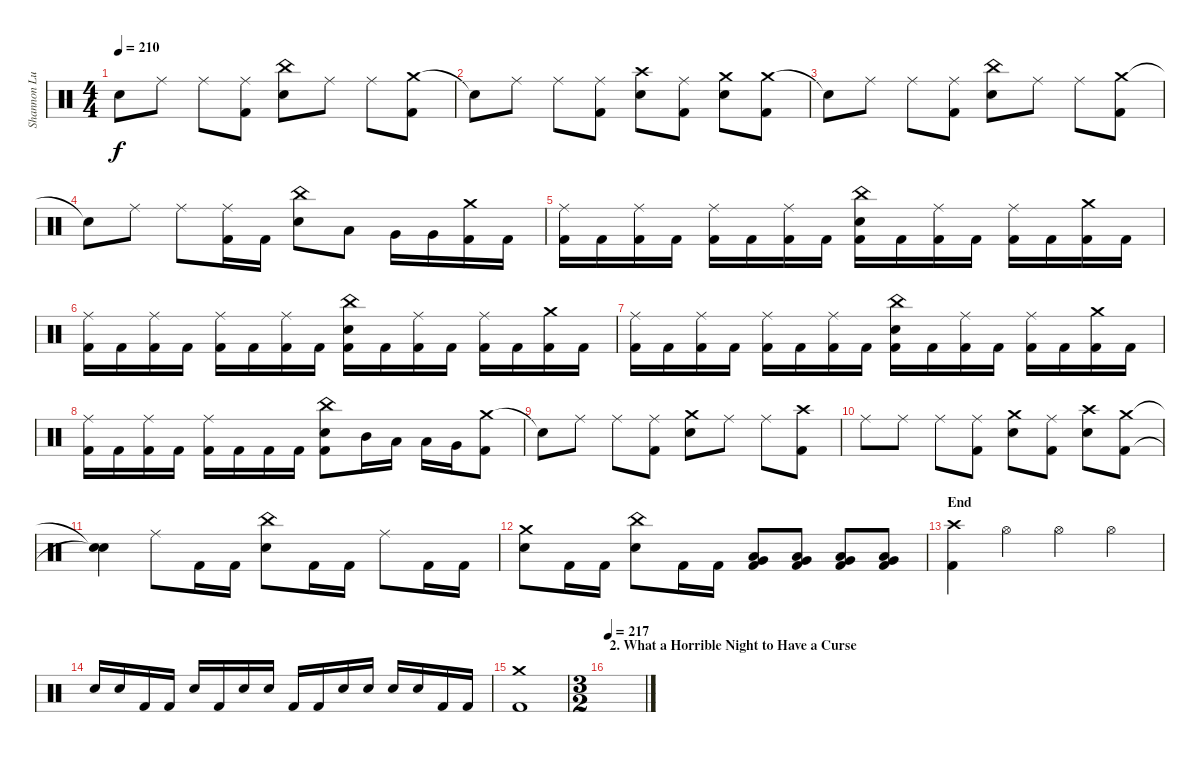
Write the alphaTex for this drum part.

\track ("Shannon Lucas [Drums (Since 2007)]" "Shannon Lu") {instrument percussion}
\staff {score}
\articulation defaults
\ts (4 4)
\tempo 210
\clef neutral
\ks c "Snare (hit)"{t}.8{dy f} "Ride (middle)".8 "Ride (middle)".8
("Ride (middle)" "Kick (hit) 2").8 ("China (hit)" "Snare (hit) 2").8 "Ride (middle)".8 "Ride (middle)".8 ("Crash medium (hit)" "Kick (hit) 2").8 |
"Snare (hit)"{t}.8 "Ride (middle)".8 "Ride (middle)".8 ("Ride (middle)" "Kick (hit) 2").8 ("Crash high (hit)" "Snare (hit) 2").8 ("Ride (middle)" "Kick (hit) 2").8 ("Crash medium (hit)" "Snare (hit) 2").8 ("Crash medium (hit)" "Kick (hit) 2").8 |
"Snare (hit)"{t}.8 "Ride (middle)".8 "Ride (middle)".8 ("Ride (middle)" "Kick (hit) 2").8 ("China (hit)" "Snare (hit) 2").8 "Ride (middle)".8 "Ride (middle)".8 ("Crash medium (hit)" "Kick (hit) 2").8 |
"Snare (hit)"{t}.8 "Ride (middle)".8 "Ride (middle)".8 ("Ride (middle)" "Kick (hit) 2").16 "Kick (hit) 2".16 ("China (hit)" "Snare (hit) 2").8 "Low Tom (hit)".8 "Very Low Tom (hit)".16 "Very Low Tom (hit)".16 ("Crash medium (hit)" "Kick (hit) 2").16 "Kick (hit) 2".16 |
("Ride (middle)" "Kick (hit) 2").16 "Kick (hit) 2".16 ("Ride (middle)" "Kick (hit) 2").16 "Kick (hit) 2".16 ("Ride (middle)" "Kick (hit) 2").16 "Kick (hit) 2".16 ("Ride (middle)" "Kick (hit) 2").16 "Kick (hit) 2".16 ("China (hit)" "Snare (hit) 2" "Kick (hit) 2").16 "Kick (hit) 2".16 ("Ride (middle)" "Kick (hit) 2").16 "Kick (hit) 2".16 ("Ride (middle)" "Kick (hit) 2").16 "Kick (hit) 2".16 ("Crash medium (hit)" "Kick (hit) 2").16 "Kick (hit) 2".16 |
("Ride (middle)" "Kick (hit) 2").16 "Kick (hit) 2".16 ("Ride (middle)" "Kick (hit) 2").16 "Kick (hit) 2".16 ("Ride (middle)" "Kick (hit) 2").16 "Kick (hit) 2".16 ("Ride (middle)" "Kick (hit) 2").16 "Kick (hit) 2".16 ("China (hit)" "Snare (hit) 2" "Kick (hit) 2").16 "Kick (hit) 2".16 ("Ride (middle)" "Kick (hit) 2").16 "Kick (hit) 2".16 ("Ride (middle)" "Kick (hit) 2").16 "Kick (hit) 2".16 ("Crash medium (hit)" "Kick (hit) 2").16 "Kick (hit) 2".16 |
("Ride (middle)" "Kick (hit) 2").16 "Kick (hit) 2".16 ("Ride (middle)" "Kick (hit) 2").16 "Kick (hit) 2".16 ("Ride (middle)" "Kick (hit) 2").16 "Kick (hit) 2".16 ("Ride (middle)" "Kick (hit) 2").16 "Kick (hit) 2".16 ("China (hit)" "Snare (hit) 2" "Kick (hit) 2").16 "Kick (hit) 2".16 ("Ride (middle)" "Kick (hit) 2").16 "Kick (hit) 2".16 ("Ride (middle)" "Kick (hit) 2").16 "Kick (hit) 2".16 ("Crash medium (hit)" "Kick (hit) 2").16 "Kick (hit) 2".16 |
("Ride (middle)" "Kick (hit) 2").16 "Kick (hit) 2".16 ("Ride (middle)" "Kick (hit) 2").16 "Kick (hit) 2".16 ("Ride (middle)" "Kick (hit) 2").16 "Kick (hit) 2".16 "Kick (hit) 2".16 "Kick (hit) 2".16 ("China (hit)" "Snare (hit) 2" "Kick (hit) 2").8 "Mid Tom (hit)".16 "Low Tom (hit)".16 "Low Tom (hit)".16 "Very Low Tom (hit)".16 ("Crash medium (hit)" "Kick (hit) 2").8 |
"Snare (hit)"{t}.8 "Ride (middle)".8 "Ride (middle)".8 ("Ride (middle)" "Kick (hit) 2").8 ("Crash medium (hit)" "Snare (hit) 2").8 "Ride (middle)".8 "Ride (middle)".8 ("Crash high (hit)" "Kick (hit) 2").8 |
"Ride (middle)".8 "Ride (middle)".8 "Ride (middle)".8 ("Ride (middle)" "Kick (hit) 2").8 ("Crash medium (hit)" "Snare (hit) 2").8 ("Ride (middle)" "Kick (hit) 2").8 ("Crash high (hit)" "Snare (hit) 2").8 ("Crash medium (hit)" "Kick (hit) 2").8 |
("Snare (hit)"{t} "Snare (hit)"{t}).4 "Ride (middle)".8 "Kick (hit) 2".16 "Kick (hit) 2".16 ("China (hit)" "Snare (hit) 2").8 "Kick (hit) 2".16 "Kick (hit) 2".16 "Ride (middle)".8 "Kick (hit) 2".16 "Kick (hit) 2".16 |
("Crash medium (hit)" "Snare (hit) 2").8 "Kick (hit) 2".16 "Kick (hit) 2".16 ("China (hit)" "Snare (hit) 2").8 "Kick (hit) 2".16 "Kick (hit) 2".16 ("Very Low Tom (hit)" "Low Floor Tom (hit)" "Kick (hit) 2").8 ("Low Tom (hit)" "Very Low Tom (hit)" "Kick (hit) 2").8 ("Low Tom (hit)" "Very Low Tom (hit)" "Kick (hit) 2").8 ("Low Tom (hit)" "Very Low Tom (hit)" "Kick (hit) 2").8 |
\section ("" "End")
("Crash high (hit)" "Kick (hit) 2").4 "Hi-Hat (open)".4 "Hi-Hat (open)".4 "Hi-Hat (open)".4 |
"Snare (hit) 2".16 "Snare (hit) 2".16 "Kick (hit) 2".16 "Kick (hit) 2".16 "Snare (hit) 2".16 "Kick (hit) 2".16 "Snare (hit) 2".16 "Snare (hit) 2".16 "Kick (hit) 2".16 "Kick (hit) 2".16 "Snare (hit) 2".16 "Snare (hit) 2".16 "Snare (hit) 2".16 "Snare (hit) 2".16 "Kick (hit) 2".16 "Kick (hit) 2".16 |
("Crash medium (hit)" "Kick (hit) 2").1 |
\ts (3 2)
\section ("" "2. What a Horrible Night to Have a Curse")
\tempo 217
